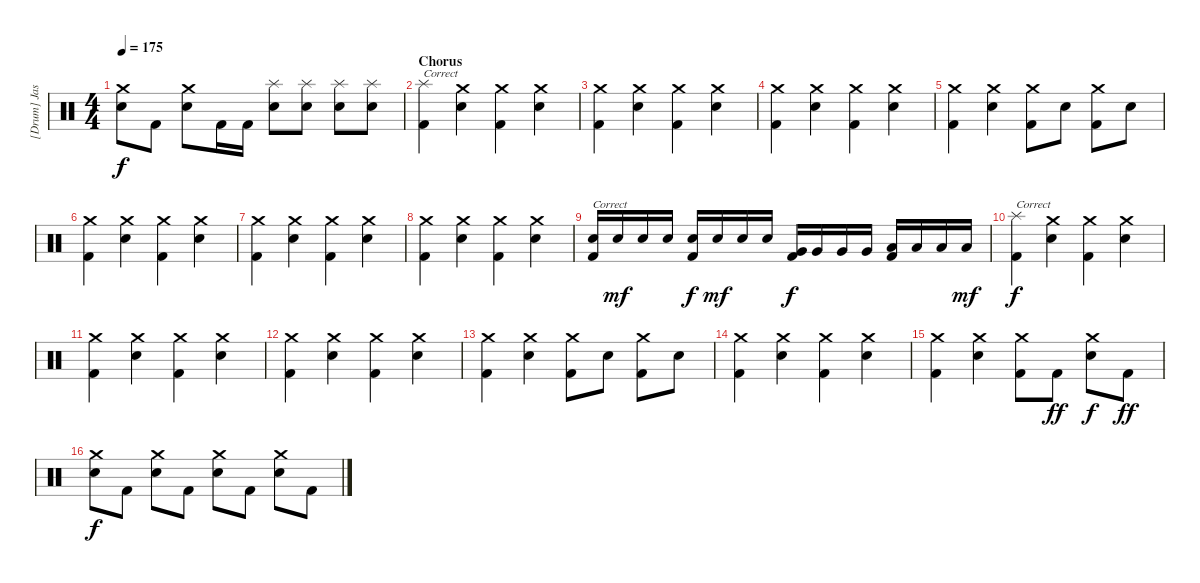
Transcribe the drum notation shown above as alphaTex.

\track ("[Drum] Jason \"Shakes\" West" "[Drum] Jas") {instrument percussion}
\staff {score}
\articulation defaults
\ts (4 4)
\tempo 175
\clef neutral
\ks c
("Electric Snare (hit)" "Crash medium (hit)").8{dy f} "Kick (hit) 2".8 ("Electric Snare (hit)" "Crash medium (hit)").8 "Kick (hit) 2".16 "Kick (hit) 2".16 ("Electric Snare (hit)" "Splash (hit)").8 ("Electric Snare (hit)" "Splash (hit)").8 ("Electric Snare (hit)" "Splash (hit)").8 ("Electric Snare (hit)" "Splash (hit)").8 |
\section ("" "Chorus")
("Splash (hit)" "Kick (hit) 2").4{txt "Correct"} ("Crash medium (hit)" "Electric Snare (hit)").4 ("Crash medium (hit)" "Kick (hit) 2").4 ("Crash medium (hit)" "Electric Snare (hit)").4 |
("Crash medium (hit)" "Kick (hit) 2").4 ("Crash medium (hit)" "Electric Snare (hit)").4 ("Crash medium (hit)" "Kick (hit) 2").4 ("Crash medium (hit)" "Electric Snare (hit)").4 |
("Crash medium (hit)" "Kick (hit) 2").4 ("Crash medium (hit)" "Electric Snare (hit)").4 ("Crash medium (hit)" "Kick (hit) 2").4 ("Crash medium (hit)" "Electric Snare (hit)").4 |
("Crash medium (hit)" "Kick (hit) 2").4 ("Crash medium (hit)" "Electric Snare (hit)").4 ("Crash medium (hit)" "Kick (hit) 2").8 "Electric Snare (hit)".8 ("Crash medium (hit)" "Kick (hit) 2").8 "Electric Snare (hit)".8 |
("Crash medium (hit)" "Kick (hit) 2").4 ("Crash medium (hit)" "Electric Snare (hit)").4 ("Crash medium (hit)" "Kick (hit) 2").4 ("Crash medium (hit)" "Electric Snare (hit)").4 |
("Crash medium (hit)" "Kick (hit) 2").4 ("Crash medium (hit)" "Electric Snare (hit)").4 ("Crash medium (hit)" "Kick (hit) 2").4 ("Crash medium (hit)" "Electric Snare (hit)").4 |
("Crash medium (hit)" "Kick (hit) 2").4 ("Crash medium (hit)" "Electric Snare (hit)").4 ("Crash medium (hit)" "Kick (hit) 2").4 ("Crash medium (hit)" "Electric Snare (hit)").4 |
("Electric Snare (hit)" "Kick (hit) 2").16{txt "Correct"} "Electric Snare (hit)".16{dy mf} "Electric Snare (hit)".16 "Electric Snare (hit)".16 ("Electric Snare (hit)" "Kick (hit) 2").16{dy f} "Electric Snare (hit)".16{dy mf} "Electric Snare (hit)".16 "Electric Snare (hit)".16 ("Very Low Tom (hit)" "Kick (hit) 2").16{dy f} "Very Low Tom (hit)".16 "Very Low Tom (hit)".16 "Very Low Tom (hit)".16 ("Low Floor Tom (hit)" "Kick (hit) 2").16 "Low Floor Tom (hit)".16 "Low Floor Tom (hit)".16 "Low Floor Tom (hit)".16{dy mf} |
("Splash (hit)" "Kick (hit) 2").4{txt "Correct" dy f} ("Crash medium (hit)" "Electric Snare (hit)").4 ("Crash medium (hit)" "Kick (hit) 2").4 ("Crash medium (hit)" "Electric Snare (hit)").4 |
("Crash medium (hit)" "Kick (hit) 2").4 ("Crash medium (hit)" "Electric Snare (hit)").4 ("Crash medium (hit)" "Kick (hit) 2").4 ("Crash medium (hit)" "Electric Snare (hit)").4 |
("Crash medium (hit)" "Kick (hit) 2").4 ("Crash medium (hit)" "Electric Snare (hit)").4 ("Crash medium (hit)" "Kick (hit) 2").4 ("Crash medium (hit)" "Electric Snare (hit)").4 |
("Crash medium (hit)" "Kick (hit) 2").4 ("Crash medium (hit)" "Electric Snare (hit)").4 ("Crash medium (hit)" "Kick (hit) 2").8 "Electric Snare (hit)".8 ("Crash medium (hit)" "Kick (hit) 2").8 "Electric Snare (hit)".8 |
("Crash medium (hit)" "Kick (hit) 2").4 ("Crash medium (hit)" "Electric Snare (hit)").4 ("Crash medium (hit)" "Kick (hit) 2").4 ("Crash medium (hit)" "Electric Snare (hit)").4 |
("Crash medium (hit)" "Kick (hit) 2").4 ("Crash medium (hit)" "Electric Snare (hit)").4 ("Crash medium (hit)" "Kick (hit) 2").8 "Kick (hit) 2".8{dy ff} ("Crash medium (hit)" "Electric Snare (hit)").8{dy f} "Kick (hit) 2".8{dy ff} |
("Crash medium (hit)" "Electric Snare (hit)").8{dy f} "Kick (hit) 2".8 ("Crash medium (hit)" "Electric Snare (hit)").8 "Kick (hit) 2".8 ("Crash medium (hit)" "Electric Snare (hit)").8 "Kick (hit) 2".8 ("Crash medium (hit)" "Electric Snare (hit)").8 "Kick (hit) 2".8
